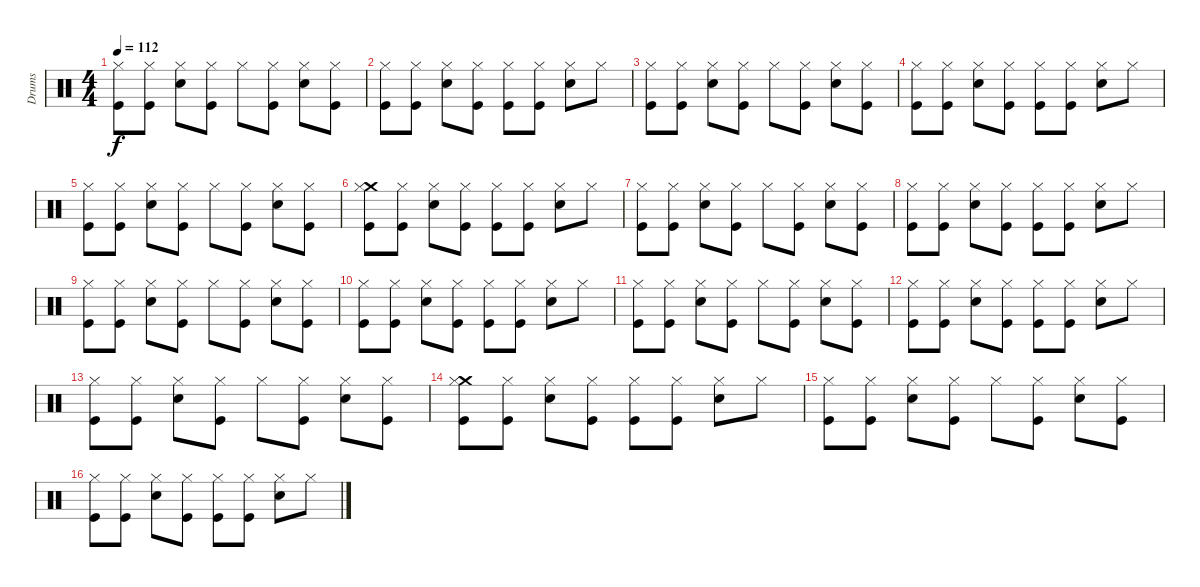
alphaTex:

\track ("Drums" "Drums") {instrument percussion}
\staff {score}
\articulation defaults
\ts (4 4)
\tempo 112
\clef neutral
\ks c
("Hi-Hat (closed)" "Kick (hit)").8{dy f} ("Hi-Hat (closed)" "Kick (hit)").8 ("Hi-Hat (closed)" "Snare (hit) 2").8 ("Hi-Hat (closed)" "Kick (hit)").8 "Hi-Hat (closed)".8 ("Hi-Hat (closed)" "Kick (hit)").8 ("Hi-Hat (closed)" "Snare (hit) 2").8 ("Hi-Hat (closed)" "Kick (hit)").8 |
("Hi-Hat (closed)" "Kick (hit)").8 ("Hi-Hat (closed)" "Kick (hit)").8 ("Hi-Hat (closed)" "Snare (hit) 2").8 ("Hi-Hat (closed)" "Kick (hit)").8 ("Hi-Hat (closed)" "Kick (hit)").8 ("Hi-Hat (closed)" "Kick (hit)").8 ("Hi-Hat (closed)" "Snare (hit) 2").8 "Hi-Hat (closed)".8 |
("Hi-Hat (closed)" "Kick (hit)").8 ("Hi-Hat (closed)" "Kick (hit)").8 ("Hi-Hat (closed)" "Snare (hit) 2").8 ("Hi-Hat (closed)" "Kick (hit)").8 "Hi-Hat (closed)".8 ("Hi-Hat (closed)" "Kick (hit)").8 ("Hi-Hat (closed)" "Snare (hit) 2").8 ("Hi-Hat (closed)" "Kick (hit)").8 |
("Hi-Hat (closed)" "Kick (hit)").8 ("Hi-Hat (closed)" "Kick (hit)").8 ("Hi-Hat (closed)" "Snare (hit) 2").8 ("Hi-Hat (closed)" "Kick (hit)").8 ("Hi-Hat (closed)" "Kick (hit)").8 ("Hi-Hat (closed)" "Kick (hit)").8 ("Hi-Hat (closed)" "Snare (hit) 2").8 "Hi-Hat (closed)".8 |
("Hi-Hat (closed)" "Kick (hit)").8 ("Hi-Hat (closed)" "Kick (hit)").8 ("Hi-Hat (closed)" "Snare (hit) 2").8 ("Hi-Hat (closed)" "Kick (hit)").8 "Hi-Hat (closed)".8 ("Hi-Hat (closed)" "Kick (hit)").8 ("Hi-Hat (closed)" "Snare (hit) 2").8 ("Hi-Hat (closed)" "Kick (hit)").8 |
("Crash medium (hit)" "Hi-Hat (closed)" "Kick (hit)").8 ("Hi-Hat (closed)" "Kick (hit)").8 ("Hi-Hat (closed)" "Snare (hit) 2").8 ("Hi-Hat (closed)" "Kick (hit)").8 ("Hi-Hat (closed)" "Kick (hit)").8 ("Hi-Hat (closed)" "Kick (hit)").8 ("Hi-Hat (closed)" "Snare (hit) 2").8 "Hi-Hat (closed)".8 |
("Hi-Hat (closed)" "Kick (hit)").8 ("Hi-Hat (closed)" "Kick (hit)").8 ("Hi-Hat (closed)" "Snare (hit) 2").8 ("Hi-Hat (closed)" "Kick (hit)").8 "Hi-Hat (closed)".8 ("Hi-Hat (closed)" "Kick (hit)").8 ("Hi-Hat (closed)" "Snare (hit) 2").8 ("Hi-Hat (closed)" "Kick (hit)").8 |
("Hi-Hat (closed)" "Kick (hit)").8 ("Hi-Hat (closed)" "Kick (hit)").8 ("Hi-Hat (closed)" "Snare (hit) 2").8 ("Hi-Hat (closed)" "Kick (hit)").8 ("Hi-Hat (closed)" "Kick (hit)").8 ("Hi-Hat (closed)" "Kick (hit)").8 ("Hi-Hat (closed)" "Snare (hit) 2").8 "Hi-Hat (closed)".8 |
("Hi-Hat (closed)" "Kick (hit)").8 ("Hi-Hat (closed)" "Kick (hit)").8 ("Hi-Hat (closed)" "Snare (hit) 2").8 ("Hi-Hat (closed)" "Kick (hit)").8 "Hi-Hat (closed)".8 ("Hi-Hat (closed)" "Kick (hit)").8 ("Hi-Hat (closed)" "Snare (hit) 2").8 ("Hi-Hat (closed)" "Kick (hit)").8 |
("Hi-Hat (closed)" "Kick (hit)").8 ("Hi-Hat (closed)" "Kick (hit)").8 ("Hi-Hat (closed)" "Snare (hit) 2").8 ("Hi-Hat (closed)" "Kick (hit)").8 ("Hi-Hat (closed)" "Kick (hit)").8 ("Hi-Hat (closed)" "Kick (hit)").8 ("Hi-Hat (closed)" "Snare (hit) 2").8 "Hi-Hat (closed)".8 |
("Hi-Hat (closed)" "Kick (hit)").8 ("Hi-Hat (closed)" "Kick (hit)").8 ("Hi-Hat (closed)" "Snare (hit) 2").8 ("Hi-Hat (closed)" "Kick (hit)").8 "Hi-Hat (closed)".8 ("Hi-Hat (closed)" "Kick (hit)").8 ("Hi-Hat (closed)" "Snare (hit) 2").8 ("Hi-Hat (closed)" "Kick (hit)").8 |
("Hi-Hat (closed)" "Kick (hit)").8 ("Hi-Hat (closed)" "Kick (hit)").8 ("Hi-Hat (closed)" "Snare (hit) 2").8 ("Hi-Hat (closed)" "Kick (hit)").8 ("Hi-Hat (closed)" "Kick (hit)").8 ("Hi-Hat (closed)" "Kick (hit)").8 ("Hi-Hat (closed)" "Snare (hit) 2").8 "Hi-Hat (closed)".8 |
("Hi-Hat (closed)" "Kick (hit)").8 ("Hi-Hat (closed)" "Kick (hit)").8 ("Hi-Hat (closed)" "Snare (hit) 2").8 ("Hi-Hat (closed)" "Kick (hit)").8 "Hi-Hat (closed)".8 ("Hi-Hat (closed)" "Kick (hit)").8 ("Hi-Hat (closed)" "Snare (hit) 2").8 ("Hi-Hat (closed)" "Kick (hit)").8 |
("Crash medium (hit)" "Hi-Hat (closed)" "Kick (hit)").8 ("Hi-Hat (closed)" "Kick (hit)").8 ("Hi-Hat (closed)" "Snare (hit) 2").8 ("Hi-Hat (closed)" "Kick (hit)").8 ("Hi-Hat (closed)" "Kick (hit)").8 ("Hi-Hat (closed)" "Kick (hit)").8 ("Hi-Hat (closed)" "Snare (hit) 2").8 "Hi-Hat (closed)".8 |
("Hi-Hat (closed)" "Kick (hit)").8 ("Hi-Hat (closed)" "Kick (hit)").8 ("Hi-Hat (closed)" "Snare (hit) 2").8 ("Hi-Hat (closed)" "Kick (hit)").8 "Hi-Hat (closed)".8 ("Hi-Hat (closed)" "Kick (hit)").8 ("Hi-Hat (closed)" "Snare (hit) 2").8 ("Hi-Hat (closed)" "Kick (hit)").8 |
("Hi-Hat (closed)" "Kick (hit)").8 ("Hi-Hat (closed)" "Kick (hit)").8 ("Hi-Hat (closed)" "Snare (hit) 2").8 ("Hi-Hat (closed)" "Kick (hit)").8 ("Hi-Hat (closed)" "Kick (hit)").8 ("Hi-Hat (closed)" "Kick (hit)").8 ("Hi-Hat (closed)" "Snare (hit) 2").8 "Hi-Hat (closed)".8
